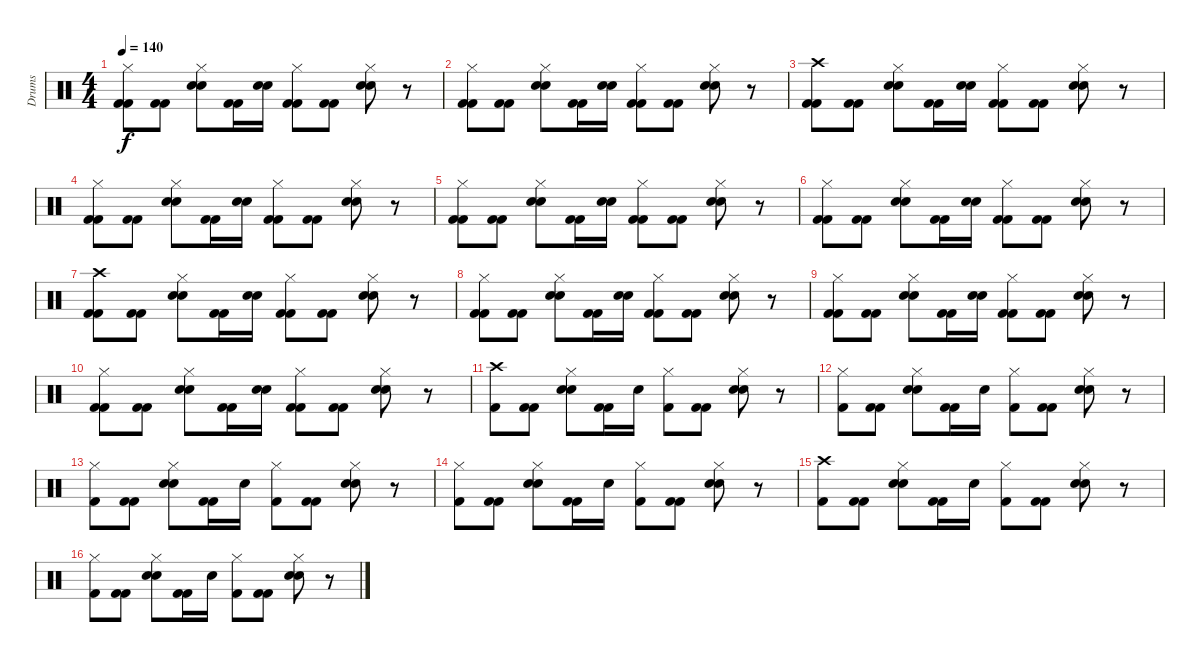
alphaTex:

\track ("Drums" "Drums") {instrument percussion}
\staff {score}
\articulation defaults
\ts (4 4)
\tempo 140
\clef neutral
\ks c
("Hi-Hat (closed)" "Kick (hit) 2" "Kick (hit) 2").8{dy f} ("Kick (hit) 2" "Kick (hit) 2").8 ("Hi-Hat (closed)" "Hand Clap (hit)" "Snare (hit) 2").8 ("Kick (hit) 2" "Kick (hit) 2").16 ("Hand Clap (hit)" "Snare (hit) 2").16 ("Hi-Hat (closed)" "Kick (hit) 2" "Kick (hit) 2").8 ("Kick (hit) 2" "Kick (hit) 2").8 ("Hi-Hat (closed)" "Hand Clap (hit)" "Snare (hit) 2").8 r.8 |
("Hi-Hat (closed)" "Kick (hit) 2" "Kick (hit) 2").8 ("Kick (hit) 2" "Kick (hit) 2").8 ("Hi-Hat (closed)" "Hand Clap (hit)" "Snare (hit) 2").8 ("Kick (hit) 2" "Kick (hit) 2").16 ("Hand Clap (hit)" "Snare (hit) 2").16 ("Hi-Hat (closed)" "Kick (hit) 2" "Kick (hit) 2").8 ("Kick (hit) 2" "Kick (hit) 2").8 ("Hi-Hat (closed)" "Hand Clap (hit)" "Snare (hit) 2").8 r.8 |
("Crash high (hit)" "Kick (hit) 2" "Kick (hit) 2").8 ("Kick (hit) 2" "Kick (hit) 2").8 ("Hi-Hat (closed)" "Hand Clap (hit)" "Snare (hit) 2").8 ("Kick (hit) 2" "Kick (hit) 2").16 ("Hand Clap (hit)" "Snare (hit) 2").16 ("Hi-Hat (closed)" "Kick (hit) 2" "Kick (hit) 2").8 ("Kick (hit) 2" "Kick (hit) 2").8 ("Hi-Hat (closed)" "Hand Clap (hit)" "Snare (hit) 2").8 r.8 |
("Hi-Hat (closed)" "Kick (hit) 2" "Kick (hit) 2").8 ("Kick (hit) 2" "Kick (hit) 2").8 ("Hi-Hat (closed)" "Hand Clap (hit)" "Snare (hit) 2").8 ("Kick (hit) 2" "Kick (hit) 2").16 ("Hand Clap (hit)" "Snare (hit) 2").16 ("Hi-Hat (closed)" "Kick (hit) 2" "Kick (hit) 2").8 ("Kick (hit) 2" "Kick (hit) 2").8 ("Hi-Hat (closed)" "Hand Clap (hit)" "Snare (hit) 2").8 r.8 |
("Hi-Hat (closed)" "Kick (hit) 2" "Kick (hit) 2").8 ("Kick (hit) 2" "Kick (hit) 2").8 ("Hi-Hat (closed)" "Hand Clap (hit)" "Snare (hit) 2").8 ("Kick (hit) 2" "Kick (hit) 2").16 ("Hand Clap (hit)" "Snare (hit) 2").16 ("Hi-Hat (closed)" "Kick (hit) 2" "Kick (hit) 2").8 ("Kick (hit) 2" "Kick (hit) 2").8 ("Hi-Hat (closed)" "Hand Clap (hit)" "Snare (hit) 2").8 r.8 |
("Hi-Hat (closed)" "Kick (hit) 2" "Kick (hit) 2").8 ("Kick (hit) 2" "Kick (hit) 2").8 ("Hi-Hat (closed)" "Hand Clap (hit)" "Snare (hit) 2").8 ("Kick (hit) 2" "Kick (hit) 2").16 ("Hand Clap (hit)" "Snare (hit) 2").16 ("Hi-Hat (closed)" "Kick (hit) 2" "Kick (hit) 2").8 ("Kick (hit) 2" "Kick (hit) 2").8 ("Hi-Hat (closed)" "Hand Clap (hit)" "Snare (hit) 2").8 r.8 |
("Crash high (hit)" "Kick (hit) 2" "Kick (hit) 2").8 ("Kick (hit) 2" "Kick (hit) 2").8 ("Hi-Hat (closed)" "Hand Clap (hit)" "Snare (hit) 2").8 ("Kick (hit) 2" "Kick (hit) 2").16 ("Hand Clap (hit)" "Snare (hit) 2").16 ("Hi-Hat (closed)" "Kick (hit) 2" "Kick (hit) 2").8 ("Kick (hit) 2" "Kick (hit) 2").8 ("Hi-Hat (closed)" "Hand Clap (hit)" "Snare (hit) 2").8 r.8 |
("Hi-Hat (closed)" "Kick (hit) 2" "Kick (hit) 2").8 ("Kick (hit) 2" "Kick (hit) 2").8 ("Hi-Hat (closed)" "Hand Clap (hit)" "Snare (hit) 2").8 ("Kick (hit) 2" "Kick (hit) 2").16 ("Hand Clap (hit)" "Snare (hit) 2").16 ("Hi-Hat (closed)" "Kick (hit) 2" "Kick (hit) 2").8 ("Kick (hit) 2" "Kick (hit) 2").8 ("Hi-Hat (closed)" "Hand Clap (hit)" "Snare (hit) 2").8 r.8 |
("Hi-Hat (closed)" "Kick (hit) 2" "Kick (hit) 2").8 ("Kick (hit) 2" "Kick (hit) 2").8 ("Hi-Hat (closed)" "Hand Clap (hit)" "Snare (hit) 2").8 ("Kick (hit) 2" "Kick (hit) 2").16 ("Hand Clap (hit)" "Snare (hit) 2").16 ("Hi-Hat (closed)" "Kick (hit) 2" "Kick (hit) 2").8 ("Kick (hit) 2" "Kick (hit) 2").8 ("Hi-Hat (closed)" "Hand Clap (hit)" "Snare (hit) 2").8 r.8 |
("Hi-Hat (closed)" "Kick (hit) 2" "Kick (hit) 2").8 ("Kick (hit) 2" "Kick (hit) 2").8 ("Hi-Hat (closed)" "Hand Clap (hit)" "Snare (hit) 2").8 ("Kick (hit) 2" "Kick (hit) 2").16 ("Hand Clap (hit)" "Snare (hit) 2").16 ("Hi-Hat (closed)" "Kick (hit) 2" "Kick (hit) 2").8 ("Kick (hit) 2" "Kick (hit) 2").8 ("Hi-Hat (closed)" "Hand Clap (hit)" "Snare (hit) 2").8 r.8 |
("Crash high (hit)" "Kick (hit) 2").8 ("Kick (hit) 2" "Kick (hit) 2").8 ("Hi-Hat (closed)" "Hand Clap (hit)" "Snare (hit) 2").8 ("Kick (hit) 2" "Kick (hit) 2").16 "Snare (hit) 2".16 ("Hi-Hat (closed)" "Kick (hit) 2").8 ("Kick (hit) 2" "Kick (hit) 2").8 ("Hi-Hat (closed)" "Hand Clap (hit)" "Snare (hit) 2").8 r.8 |
("Hi-Hat (closed)" "Kick (hit) 2").8 ("Kick (hit) 2" "Kick (hit) 2").8 ("Hi-Hat (closed)" "Hand Clap (hit)" "Snare (hit) 2").8 ("Kick (hit) 2" "Kick (hit) 2").16 "Snare (hit) 2".16 ("Hi-Hat (closed)" "Kick (hit) 2").8 ("Kick (hit) 2" "Kick (hit) 2").8 ("Hi-Hat (closed)" "Hand Clap (hit)" "Snare (hit) 2").8 r.8 |
("Hi-Hat (closed)" "Kick (hit) 2").8 ("Kick (hit) 2" "Kick (hit) 2").8 ("Hi-Hat (closed)" "Hand Clap (hit)" "Snare (hit) 2").8 ("Kick (hit) 2" "Kick (hit) 2").16 "Snare (hit) 2".16 ("Hi-Hat (closed)" "Kick (hit) 2").8 ("Kick (hit) 2" "Kick (hit) 2").8 ("Hi-Hat (closed)" "Hand Clap (hit)" "Snare (hit) 2").8 r.8 |
("Hi-Hat (closed)" "Kick (hit) 2").8 ("Kick (hit) 2" "Kick (hit) 2").8 ("Hi-Hat (closed)" "Hand Clap (hit)" "Snare (hit) 2").8 ("Kick (hit) 2" "Kick (hit) 2").16 "Snare (hit) 2".16 ("Hi-Hat (closed)" "Kick (hit) 2").8 ("Kick (hit) 2" "Kick (hit) 2").8 ("Hi-Hat (closed)" "Hand Clap (hit)" "Snare (hit) 2").8 r.8 |
("Crash high (hit)" "Kick (hit) 2").8 ("Kick (hit) 2" "Kick (hit) 2").8 ("Hi-Hat (closed)" "Hand Clap (hit)" "Snare (hit) 2").8 ("Kick (hit) 2" "Kick (hit) 2").16 "Snare (hit) 2".16 ("Hi-Hat (closed)" "Kick (hit) 2").8 ("Kick (hit) 2" "Kick (hit) 2").8 ("Hi-Hat (closed)" "Hand Clap (hit)" "Snare (hit) 2").8 r.8 |
("Hi-Hat (closed)" "Kick (hit) 2").8 ("Kick (hit) 2" "Kick (hit) 2").8 ("Hi-Hat (closed)" "Hand Clap (hit)" "Snare (hit) 2").8 ("Kick (hit) 2" "Kick (hit) 2").16 "Snare (hit) 2".16 ("Hi-Hat (closed)" "Kick (hit) 2").8 ("Kick (hit) 2" "Kick (hit) 2").8 ("Hi-Hat (closed)" "Hand Clap (hit)" "Snare (hit) 2").8 r.8
